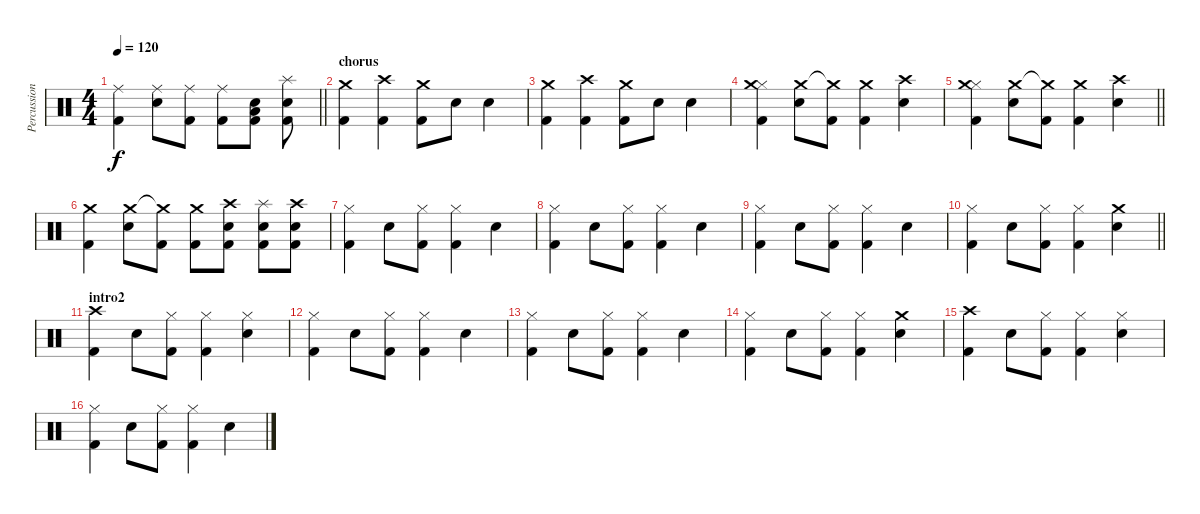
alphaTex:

\track ("Percussion" "Percussion") {instrument percussion}
\staff {score}
\articulation defaults
\ts (4 4)
\tempo 120
\clef neutral
\barLineRight lightlight
\ks c
("Kick (hit) 2" "Ride (middle)").4{dy f} ("Electric Snare (hit)" "Ride (middle)").8 ("Kick (hit) 2" "Ride (middle)").8 ("Kick (hit) 2" "Ride (middle)").8 ("Kick (hit) 2" "Electric Snare (hit)" "Low Floor Tom (hit)").8 ("Kick (hit) 2" "Electric Snare (hit)" "Splash (hit)").8 |
\section ("" "chorus")
("Kick (hit) 2" "Crash medium (hit)").4 ("Kick (hit) 2" "Crash high (hit)").4 ("Kick (hit) 2" "Crash medium (hit)").8 "Electric Snare (hit)".8 "Electric Snare (hit)".4 |
("Kick (hit) 2" "Crash medium (hit)").4 ("Kick (hit) 2" "Crash high (hit)").4 ("Kick (hit) 2" "Crash medium (hit)").8 "Electric Snare (hit)".8 "Electric Snare (hit)".4 |
("Kick (hit) 2" "Hi-Hat (closed)" "Crash medium (hit)").4 ("Electric Snare (hit)" "Crash medium (hit)").8 ("Kick (hit) 2" "Crash medium (hit)"{t}).8 ("Kick (hit) 2" "Crash medium (hit)").4 ("Electric Snare (hit)" "Crash high (hit)").4 |
\barLineRight lightlight
("Kick (hit) 2" "Hi-Hat (closed)" "Crash medium (hit)").4 ("Electric Snare (hit)" "Crash medium (hit)").8 ("Kick (hit) 2" "Crash medium (hit)"{t}).8 ("Kick (hit) 2" "Crash medium (hit)").4 ("Electric Snare (hit)" "Crash high (hit)").4 |
("Kick (hit) 2" "Crash medium (hit)").4 ("Electric Snare (hit)" "Crash medium (hit)").8 ("Kick (hit) 2" "Crash medium (hit)"{t}).8 ("Kick (hit) 2" "Crash medium (hit)").8 ("Kick (hit) 2" "Electric Snare (hit)" "Crash high (hit)").8 ("Kick (hit) 2" "Electric Snare (hit)" "Splash (hit)").8 ("Kick (hit) 2" "Electric Snare (hit)" "Crash high (hit)").8 |
("Kick (hit) 2" "Hi-Hat (closed)").4 "Electric Snare (hit)".8 ("Kick (hit) 2" "Hi-Hat (closed)").8 ("Kick (hit) 2" "Hi-Hat (closed)").4 "Electric Snare (hit)".4 |
("Kick (hit) 2" "Hi-Hat (closed)").4 "Electric Snare (hit)".8 ("Kick (hit) 2" "Hi-Hat (closed)").8 ("Kick (hit) 2" "Hi-Hat (closed)").4 "Electric Snare (hit)".4 |
("Kick (hit) 2" "Hi-Hat (closed)").4 "Electric Snare (hit)".8 ("Kick (hit) 2" "Hi-Hat (closed)").8 ("Kick (hit) 2" "Hi-Hat (closed)").4 "Electric Snare (hit)".4 |
\barLineRight lightlight
("Kick (hit) 2" "Hi-Hat (closed)").4 "Electric Snare (hit)".8 ("Kick (hit) 2" "Hi-Hat (closed)").8 ("Kick (hit) 2" "Hi-Hat (closed)").4 ("Electric Snare (hit)" "Crash medium (hit)").4 |
\section ("" "intro2")
("Kick (hit) 2" "Crash high (hit)").4 "Electric Snare (hit)".8 ("Kick (hit) 2" "Hi-Hat (closed)").8 ("Kick (hit) 2" "Hi-Hat (closed)").4 ("Electric Snare (hit)" "Hi-Hat (closed)").4 |
("Kick (hit) 2" "Hi-Hat (closed)").4 "Electric Snare (hit)".8 ("Kick (hit) 2" "Hi-Hat (closed)").8 ("Kick (hit) 2" "Hi-Hat (closed)").4 "Electric Snare (hit)".4 |
("Kick (hit) 2" "Hi-Hat (closed)").4 "Electric Snare (hit)".8 ("Kick (hit) 2" "Hi-Hat (closed)").8 ("Kick (hit) 2" "Hi-Hat (closed)").4 "Electric Snare (hit)".4 |
("Kick (hit) 2" "Hi-Hat (closed)").4 "Electric Snare (hit)".8 ("Kick (hit) 2" "Hi-Hat (closed)").8 ("Kick (hit) 2" "Hi-Hat (closed)").4 ("Electric Snare (hit)" "Crash medium (hit)").4 |
("Kick (hit) 2" "Crash high (hit)").4 "Electric Snare (hit)".8 ("Kick (hit) 2" "Hi-Hat (closed)").8 ("Kick (hit) 2" "Hi-Hat (closed)").4 ("Electric Snare (hit)" "Hi-Hat (closed)").4 |
("Kick (hit) 2" "Hi-Hat (closed)").4 "Electric Snare (hit)".8 ("Kick (hit) 2" "Hi-Hat (closed)").8 ("Kick (hit) 2" "Hi-Hat (closed)").4 "Electric Snare (hit)".4
